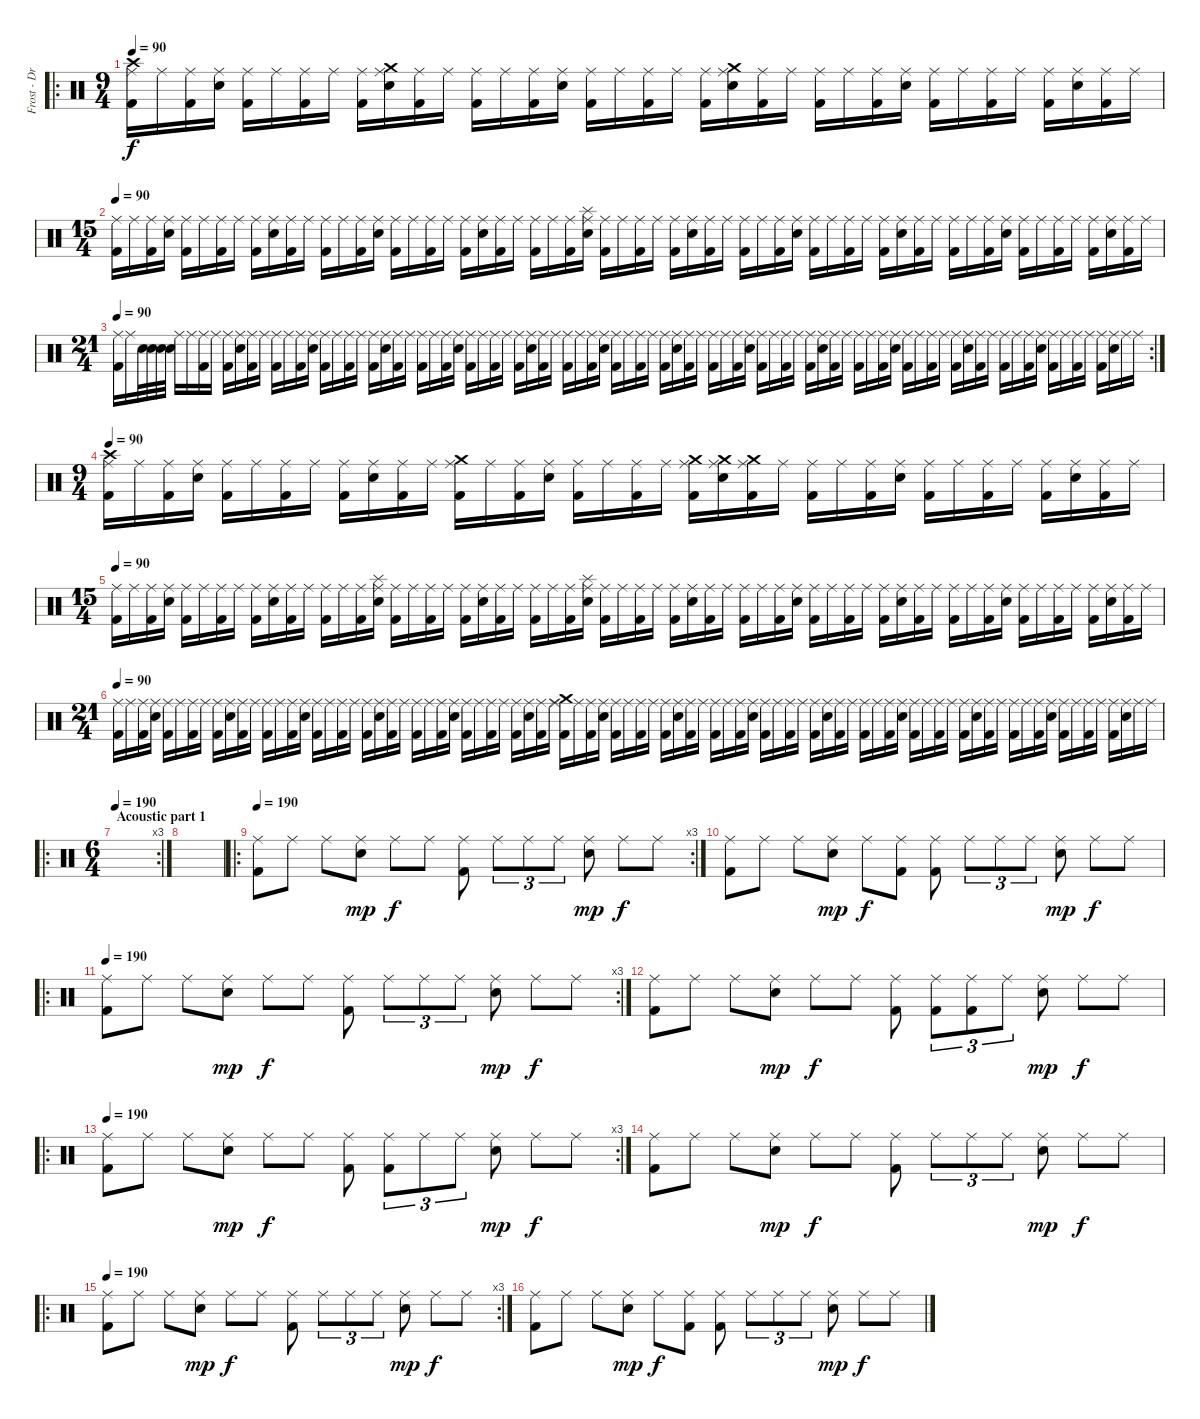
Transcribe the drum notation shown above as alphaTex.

\track ("Frost - Drums" "Frost - Dr") {instrument percussion}
\staff {score}
\articulation defaults
\ro
\ts (9 4)
\tempo 90
\clef neutral
\ks c
("Ride (middle)" "Kick (hit) 2" "Crash high (hit)").16{dy f} "Ride (middle)".16 ("Ride (middle)" "Kick (hit) 2").16 ("Ride (middle)" "Electric Snare (hit)").16 ("Ride (middle)" "Kick (hit) 2").16 "Ride (middle)".16 ("Ride (middle)" "Kick (hit) 2").16 "Ride (middle)".16 ("Ride (middle)" "Kick (hit) 2").16 ("Ride (middle)" "Electric Snare (hit)" "Crash medium (hit)").16 ("Ride (middle)" "Kick (hit) 2").16 "Ride (middle)".16 ("Ride (middle)" "Kick (hit) 2").16 "Ride (middle)".16 ("Ride (middle)" "Kick (hit) 2").16 ("Ride (middle)" "Electric Snare (hit)").16 ("Ride (middle)" "Kick (hit) 2").16 "Ride (middle)".16 ("Ride (middle)" "Kick (hit) 2").16 "Ride (middle)".16 ("Ride (middle)" "Kick (hit) 2").16 ("Ride (middle)" "Electric Snare (hit)" "Crash medium (hit)").16 ("Ride (middle)" "Kick (hit) 2").16 "Ride (middle)".16 ("Ride (middle)" "Kick (hit) 2").16 "Ride (middle)".16 ("Ride (middle)" "Kick (hit) 2").16 ("Ride (middle)" "Electric Snare (hit)").16 ("Ride (middle)" "Kick (hit) 2").16 "Ride (middle)".16 ("Ride (middle)" "Kick (hit) 2").16 "Ride (middle)".16 ("Ride (middle)" "Kick (hit) 2").16 ("Ride (middle)" "Electric Snare (hit)").16 ("Ride (middle)" "Kick (hit) 2").16 "Ride (middle)".16 |
\ts (15 4)
\tempo 90
("Ride (middle)" "Kick (hit) 2").16 "Ride (middle)".16 ("Ride (middle)" "Kick (hit) 2").16 ("Ride (middle)" "Electric Snare (hit)").16 ("Ride (middle)" "Kick (hit) 2").16 "Ride (middle)".16 ("Ride (middle)" "Kick (hit) 2").16 "Ride (middle)".16 ("Ride (middle)" "Kick (hit) 2").16 ("Ride (middle)" "Electric Snare (hit)").16 ("Ride (middle)" "Kick (hit) 2").16 "Ride (middle)".16 ("Ride (middle)" "Kick (hit) 2").16 "Ride (middle)".16 ("Ride (middle)" "Kick (hit) 2").16 ("Ride (middle)" "Electric Snare (hit)").16 ("Ride (middle)" "Kick (hit) 2").16 "Ride (middle)".16 ("Ride (middle)" "Kick (hit) 2").16 "Ride (middle)".16 ("Ride (middle)" "Kick (hit) 2").16 ("Ride (middle)" "Electric Snare (hit)").16 ("Ride (middle)" "Kick (hit) 2").16 "Ride (middle)".16 ("Ride (middle)" "Kick (hit) 2").16 "Ride (middle)".16 ("Ride (middle)" "Kick (hit) 2").16 ("Ride (middle)" "Electric Snare (hit)" "Splash (hit)").16 ("Ride (middle)" "Kick (hit) 2").16 "Ride (middle)".16 ("Ride (middle)" "Kick (hit) 2").16 "Ride (middle)".16 ("Ride (middle)" "Kick (hit) 2").16 ("Ride (middle)" "Electric Snare (hit)").16 ("Ride (middle)" "Kick (hit) 2").16 "Ride (middle)".16 ("Ride (middle)" "Kick (hit) 2").16 "Ride (middle)".16 ("Ride (middle)" "Kick (hit) 2").16 ("Ride (middle)" "Electric Snare (hit)").16 ("Ride (middle)" "Kick (hit) 2").16 "Ride (middle)".16 ("Ride (middle)" "Kick (hit) 2").16 "Ride (middle)".16 ("Ride (middle)" "Kick (hit) 2").16 ("Ride (middle)" "Electric Snare (hit)").16 ("Ride (middle)" "Kick (hit) 2").16 "Ride (middle)".16 ("Ride (middle)" "Kick (hit) 2").16 "Ride (middle)".16 ("Ride (middle)" "Kick (hit) 2").16 ("Ride (middle)" "Electric Snare (hit)").16 ("Ride (middle)" "Kick (hit) 2").16 "Ride (middle)".16 ("Ride (middle)" "Kick (hit) 2").16 "Ride (middle)".16 ("Ride (middle)" "Kick (hit) 2").16 ("Ride (middle)" "Electric Snare (hit)").16 ("Ride (middle)" "Kick (hit) 2").16 "Ride (middle)".16 |
\rc 2
\ts (21 4)
\tempo 90
("Ride (middle)" "Kick (hit) 2").16 "Ride (middle)".16 "Electric Snare (hit)".32 "Electric Snare (hit)".32 "Electric Snare (hit)".32 "Electric Snare (hit)".32 "Ride (middle)".16 "Ride (middle)".16 ("Ride (middle)" "Kick (hit) 2").16 "Ride (middle)".16 ("Ride (middle)" "Kick (hit) 2").16 ("Ride (middle)" "Electric Snare (hit)").16 ("Ride (middle)" "Kick (hit) 2").16 "Ride (middle)".16 ("Ride (middle)" "Kick (hit) 2").16 "Ride (middle)".16 ("Ride (middle)" "Kick (hit) 2").16 ("Ride (middle)" "Electric Snare (hit)").16 ("Ride (middle)" "Kick (hit) 2").16 "Ride (middle)".16 ("Ride (middle)" "Kick (hit) 2").16 "Ride (middle)".16 ("Ride (middle)" "Kick (hit) 2").16 ("Ride (middle)" "Electric Snare (hit)").16 ("Ride (middle)" "Kick (hit) 2").16 "Ride (middle)".16 ("Ride (middle)" "Kick (hit) 2").16 "Ride (middle)".16 ("Ride (middle)" "Kick (hit) 2").16 ("Ride (middle)" "Electric Snare (hit)").16 ("Ride (middle)" "Kick (hit) 2").16 "Ride (middle)".16 ("Ride (middle)" "Kick (hit) 2").16 "Ride (middle)".16 ("Ride (middle)" "Kick (hit) 2").16 ("Ride (middle)" "Electric Snare (hit)").16 ("Ride (middle)" "Kick (hit) 2").16 "Ride (middle)".16 ("Ride (middle)" "Kick (hit) 2").16 "Ride (middle)".16 ("Ride (middle)" "Kick (hit) 2").16 ("Ride (middle)" "Electric Snare (hit)").16 ("Ride (middle)" "Kick (hit) 2").16 "Ride (middle)".16 ("Ride (middle)" "Kick (hit) 2").16 "Ride (middle)".16 ("Ride (middle)" "Kick (hit) 2").16 ("Ride (middle)" "Electric Snare (hit)").16 ("Ride (middle)" "Kick (hit) 2").16 "Ride (middle)".16 ("Ride (middle)" "Kick (hit) 2").16 "Ride (middle)".16 ("Ride (middle)" "Kick (hit) 2").16 ("Ride (middle)" "Electric Snare (hit)").16 ("Ride (middle)" "Kick (hit) 2").16 "Ride (middle)".16 ("Ride (middle)" "Kick (hit) 2").16 "Ride (middle)".16 ("Ride (middle)" "Kick (hit) 2").16 ("Ride (middle)" "Electric Snare (hit)").16 ("Ride (middle)" "Kick (hit) 2").16 "Ride (middle)".16 ("Ride (middle)" "Kick (hit) 2").16 "Ride (middle)".16 ("Ride (middle)" "Kick (hit) 2").16 ("Ride (middle)" "Electric Snare (hit)").16 ("Ride (middle)" "Kick (hit) 2").16 "Ride (middle)".16 ("Ride (middle)" "Kick (hit) 2").16 "Ride (middle)".16 ("Ride (middle)" "Kick (hit) 2").16 ("Ride (middle)" "Electric Snare (hit)").16 ("Ride (middle)" "Kick (hit) 2").16 "Ride (middle)".16 ("Ride (middle)" "Kick (hit) 2").16 "Ride (middle)".16 ("Ride (middle)" "Kick (hit) 2").16 ("Ride (middle)" "Electric Snare (hit)").16 ("Ride (middle)" "Kick (hit) 2").16 "Ride (middle)".16 ("Ride (middle)" "Kick (hit) 2").16 "Ride (middle)".16 ("Ride (middle)" "Kick (hit) 2").16 ("Ride (middle)" "Electric Snare (hit)").16 "Ride (middle)".16 "Ride (middle)".16 |
\ts (9 4)
\tempo 90
("Ride (middle)" "Kick (hit) 2" "Crash high (hit)").16 "Ride (middle)".16 ("Ride (middle)" "Kick (hit) 2").16 ("Ride (middle)" "Electric Snare (hit)").16 ("Ride (middle)" "Kick (hit) 2").16 "Ride (middle)".16 ("Ride (middle)" "Kick (hit) 2").16 "Ride (middle)".16 ("Ride (middle)" "Kick (hit) 2").16 ("Ride (middle)" "Electric Snare (hit)").16 ("Ride (middle)" "Kick (hit) 2").16 "Ride (middle)".16 ("Ride (middle)" "Kick (hit) 2" "Crash medium (hit)").16 "Ride (middle)".16 ("Ride (middle)" "Kick (hit) 2").16 ("Ride (middle)" "Electric Snare (hit)").16 ("Ride (middle)" "Kick (hit) 2").16 "Ride (middle)".16 ("Ride (middle)" "Kick (hit) 2").16 "Ride (middle)".16 ("Ride (middle)" "Kick (hit) 2" "Crash medium (hit)").16 ("Ride (middle)" "Electric Snare (hit)" "Crash medium (hit)").16 ("Ride (middle)" "Kick (hit) 2" "Crash medium (hit)").16 "Ride (middle)".16 ("Ride (middle)" "Kick (hit) 2").16 "Ride (middle)".16 ("Ride (middle)" "Kick (hit) 2").16 ("Ride (middle)" "Electric Snare (hit)").16 ("Ride (middle)" "Kick (hit) 2").16 "Ride (middle)".16 ("Ride (middle)" "Kick (hit) 2").16 "Ride (middle)".16 ("Ride (middle)" "Kick (hit) 2").16 ("Ride (middle)" "Electric Snare (hit)").16 ("Ride (middle)" "Kick (hit) 2").16 "Ride (middle)".16 |
\ts (15 4)
\tempo 90
("Ride (middle)" "Kick (hit) 2").16 "Ride (middle)".16 ("Ride (middle)" "Kick (hit) 2").16 ("Ride (middle)" "Electric Snare (hit)").16 ("Ride (middle)" "Kick (hit) 2").16 "Ride (middle)".16 ("Ride (middle)" "Kick (hit) 2").16 "Ride (middle)".16 ("Ride (middle)" "Kick (hit) 2").16 ("Ride (middle)" "Electric Snare (hit)").16 ("Ride (middle)" "Kick (hit) 2").16 "Ride (middle)".16 ("Ride (middle)" "Kick (hit) 2").16 "Ride (middle)".16 ("Ride (middle)" "Kick (hit) 2").16 ("Ride (middle)" "Electric Snare (hit)" "Splash (hit)").16 ("Ride (middle)" "Kick (hit) 2").16 "Ride (middle)".16 ("Ride (middle)" "Kick (hit) 2").16 "Ride (middle)".16 ("Ride (middle)" "Kick (hit) 2").16 ("Ride (middle)" "Electric Snare (hit)").16 ("Ride (middle)" "Kick (hit) 2").16 "Ride (middle)".16 ("Ride (middle)" "Kick (hit) 2").16 "Ride (middle)".16 ("Ride (middle)" "Kick (hit) 2").16 ("Ride (middle)" "Electric Snare (hit)" "Splash (hit)").16 ("Ride (middle)" "Kick (hit) 2").16 "Ride (middle)".16 ("Ride (middle)" "Kick (hit) 2").16 "Ride (middle)".16 ("Ride (middle)" "Kick (hit) 2").16 ("Ride (middle)" "Electric Snare (hit)").16 ("Ride (middle)" "Kick (hit) 2").16 "Ride (middle)".16 ("Ride (middle)" "Kick (hit) 2").16 "Ride (middle)".16 ("Ride (middle)" "Kick (hit) 2").16 ("Ride (middle)" "Electric Snare (hit)").16 ("Ride (middle)" "Kick (hit) 2").16 "Ride (middle)".16 ("Ride (middle)" "Kick (hit) 2").16 "Ride (middle)".16 ("Ride (middle)" "Kick (hit) 2").16 ("Ride (middle)" "Electric Snare (hit)").16 ("Ride (middle)" "Kick (hit) 2").16 "Ride (middle)".16 ("Ride (middle)" "Kick (hit) 2").16 "Ride (middle)".16 ("Ride (middle)" "Kick (hit) 2").16 ("Ride (middle)" "Electric Snare (hit)").16 ("Ride (middle)" "Kick (hit) 2").16 "Ride (middle)".16 ("Ride (middle)" "Kick (hit) 2").16 "Ride (middle)".16 ("Ride (middle)" "Kick (hit) 2").16 ("Ride (middle)" "Electric Snare (hit)").16 ("Ride (middle)" "Kick (hit) 2").16 "Ride (middle)".16 |
\ts (21 4)
\tempo 90
("Ride (middle)" "Kick (hit) 2").16 "Ride (middle)".16 ("Ride (middle)" "Kick (hit) 2").16 ("Ride (middle)" "Electric Snare (hit)").16 ("Ride (middle)" "Kick (hit) 2").16 "Ride (middle)".16 ("Ride (middle)" "Kick (hit) 2").16 "Ride (middle)".16 ("Ride (middle)" "Kick (hit) 2").16 ("Ride (middle)" "Electric Snare (hit)").16 ("Ride (middle)" "Kick (hit) 2").16 "Ride (middle)".16 ("Ride (middle)" "Kick (hit) 2").16 "Ride (middle)".16 ("Ride (middle)" "Kick (hit) 2").16 ("Ride (middle)" "Electric Snare (hit)").16 ("Ride (middle)" "Kick (hit) 2").16 "Ride (middle)".16 ("Ride (middle)" "Kick (hit) 2").16 "Ride (middle)".16 ("Ride (middle)" "Kick (hit) 2").16 ("Ride (middle)" "Electric Snare (hit)").16 ("Ride (middle)" "Kick (hit) 2").16 "Ride (middle)".16 ("Ride (middle)" "Kick (hit) 2").16 "Ride (middle)".16 ("Ride (middle)" "Kick (hit) 2").16 ("Ride (middle)" "Electric Snare (hit)").16 ("Ride (middle)" "Kick (hit) 2").16 "Ride (middle)".16 ("Ride (middle)" "Kick (hit) 2").16 "Ride (middle)".16 ("Ride (middle)" "Kick (hit) 2").16 ("Ride (middle)" "Electric Snare (hit)").16 ("Ride (middle)" "Kick (hit) 2").16 "Ride (middle)".16 ("Ride (middle)" "Kick (hit) 2" "Crash medium (hit)").16 "Ride (middle)".16 ("Ride (middle)" "Kick (hit) 2").16 ("Ride (middle)" "Electric Snare (hit)").16 ("Ride (middle)" "Kick (hit) 2").16 "Ride (middle)".16 ("Ride (middle)" "Kick (hit) 2").16 "Ride (middle)".16 ("Ride (middle)" "Kick (hit) 2").16 ("Ride (middle)" "Electric Snare (hit)").16 ("Ride (middle)" "Kick (hit) 2").16 "Ride (middle)".16 ("Ride (middle)" "Kick (hit) 2").16 "Ride (middle)".16 ("Ride (middle)" "Kick (hit) 2").16 ("Ride (middle)" "Electric Snare (hit)").16 ("Ride (middle)" "Kick (hit) 2").16 "Ride (middle)".16 ("Ride (middle)" "Kick (hit) 2").16 "Ride (middle)".16 ("Ride (middle)" "Kick (hit) 2").16 ("Ride (middle)" "Electric Snare (hit)").16 ("Ride (middle)" "Kick (hit) 2").16 "Ride (middle)".16 ("Ride (middle)" "Kick (hit) 2").16 "Ride (middle)".16 ("Ride (middle)" "Kick (hit) 2").16 ("Ride (middle)" "Electric Snare (hit)").16 ("Ride (middle)" "Kick (hit) 2").16 "Ride (middle)".16 ("Ride (middle)" "Kick (hit) 2").16 "Ride (middle)".16 ("Ride (middle)" "Kick (hit) 2").16 ("Ride (middle)" "Electric Snare (hit)").16 ("Ride (middle)" "Kick (hit) 2").16 "Ride (middle)".16 ("Ride (middle)" "Kick (hit) 2").16 "Ride (middle)".16 ("Ride (middle)" "Kick (hit) 2").16 ("Ride (middle)" "Electric Snare (hit)").16 ("Ride (middle)" "Kick (hit) 2").16 "Ride (middle)".16 ("Ride (middle)" "Kick (hit) 2").16 "Ride (middle)".16 ("Ride (middle)" "Kick (hit) 2").16 ("Ride (middle)" "Electric Snare (hit)").16 "Ride (middle)".16 "Ride (middle)".16 |
\ro
\rc 3
\ts (6 4)
\section ("" "Acoustic part 1")
\tempo 190
|
|
\ro
\rc 3
\tempo 190
("Ride (middle)" "Kick (hit) 2").8 "Ride (middle)".8 "Ride (middle)".8 ("Ride (middle)" "Electric Snare (hit)").8{dy mp} "Ride (middle)".8{dy f} "Ride (middle)".8 ("Ride (middle)" "Kick (hit) 2").8 "Ride (middle)".8{tu (3 2)} "Ride (middle)".8{tu (3 2)} "Ride (middle)".8{tu (3 2)} ("Ride (middle)" "Electric Snare (hit)").8{dy mp} "Ride (middle)".8{dy f} "Ride (middle)".8 |
("Ride (middle)" "Kick (hit) 2").8 "Ride (middle)".8 "Ride (middle)".8 ("Ride (middle)" "Electric Snare (hit)").8{dy mp} "Ride (middle)".8{dy f} ("Ride (middle)" "Kick (hit) 2").8 ("Ride (middle)" "Kick (hit) 2").8 "Ride (middle)".8{tu (3 2)} "Ride (middle)".8{tu (3 2)} "Ride (middle)".8{tu (3 2)} ("Ride (middle)" "Electric Snare (hit)").8{dy mp} "Ride (middle)".8{dy f} "Ride (middle)".8 |
\ro
\rc 3
\tempo 190
("Ride (middle)" "Kick (hit) 2").8 "Ride (middle)".8 "Ride (middle)".8 ("Ride (middle)" "Electric Snare (hit)").8{dy mp} "Ride (middle)".8{dy f} "Ride (middle)".8 ("Ride (middle)" "Kick (hit) 2").8 "Ride (middle)".8{tu (3 2)} "Ride (middle)".8{tu (3 2)} "Ride (middle)".8{tu (3 2)} ("Ride (middle)" "Electric Snare (hit)").8{dy mp} "Ride (middle)".8{dy f} "Ride (middle)".8 |
("Ride (middle)" "Kick (hit) 2").8 "Ride (middle)".8 "Ride (middle)".8 ("Ride (middle)" "Electric Snare (hit)").8{dy mp} "Ride (middle)".8{dy f} "Ride (middle)".8 ("Ride (middle)" "Kick (hit) 2").8 ("Ride (middle)" "Kick (hit) 2").8{tu (3 2)} ("Ride (middle)" "Kick (hit) 2").8{tu (3 2)} "Ride (middle)".8{tu (3 2)} ("Ride (middle)" "Electric Snare (hit)").8{dy mp} "Ride (middle)".8{dy f} "Ride (middle)".8 |
\ro
\rc 3
\tempo 190
("Ride (middle)" "Kick (hit) 2").8 "Ride (middle)".8 "Ride (middle)".8 ("Ride (middle)" "Electric Snare (hit)").8{dy mp} "Ride (middle)".8{dy f} "Ride (middle)".8 ("Ride (middle)" "Kick (hit) 2").8 ("Ride (middle)" "Kick (hit) 2").8{tu (3 2)} "Ride (middle)".8{tu (3 2)} "Ride (middle)".8{tu (3 2)} ("Ride (middle)" "Electric Snare (hit)").8{dy mp} "Ride (middle)".8{dy f} "Ride (middle)".8 |
("Ride (middle)" "Kick (hit) 2").8 "Ride (middle)".8 "Ride (middle)".8 ("Ride (middle)" "Electric Snare (hit)").8{dy mp} "Ride (middle)".8{dy f} "Ride (middle)".8 ("Ride (middle)" "Kick (hit) 2").8 "Ride (middle)".8{tu (3 2)} "Ride (middle)".8{tu (3 2)} "Ride (middle)".8{tu (3 2)} ("Ride (middle)" "Electric Snare (hit)").8{dy mp} "Ride (middle)".8{dy f} "Ride (middle)".8 |
\ro
\rc 3
\tempo 190
("Ride (middle)" "Kick (hit) 2").8 "Ride (middle)".8 "Ride (middle)".8 ("Ride (middle)" "Electric Snare (hit)").8{dy mp} "Ride (middle)".8{dy f} "Ride (middle)".8 ("Ride (middle)" "Kick (hit) 2").8 "Ride (middle)".8{tu (3 2)} "Ride (middle)".8{tu (3 2)} "Ride (middle)".8{tu (3 2)} ("Ride (middle)" "Electric Snare (hit)").8{dy mp} "Ride (middle)".8{dy f} "Ride (middle)".8 |
("Ride (middle)" "Kick (hit) 2").8 "Ride (middle)".8 "Ride (middle)".8 ("Ride (middle)" "Electric Snare (hit)").8{dy mp} "Ride (middle)".8{dy f} ("Ride (middle)" "Kick (hit) 2").8 ("Ride (middle)" "Kick (hit) 2").8 "Ride (middle)".8{tu (3 2)} "Ride (middle)".8{tu (3 2)} "Ride (middle)".8{tu (3 2)} ("Ride (middle)" "Electric Snare (hit)").8{dy mp} "Ride (middle)".8{dy f} "Ride (middle)".8
